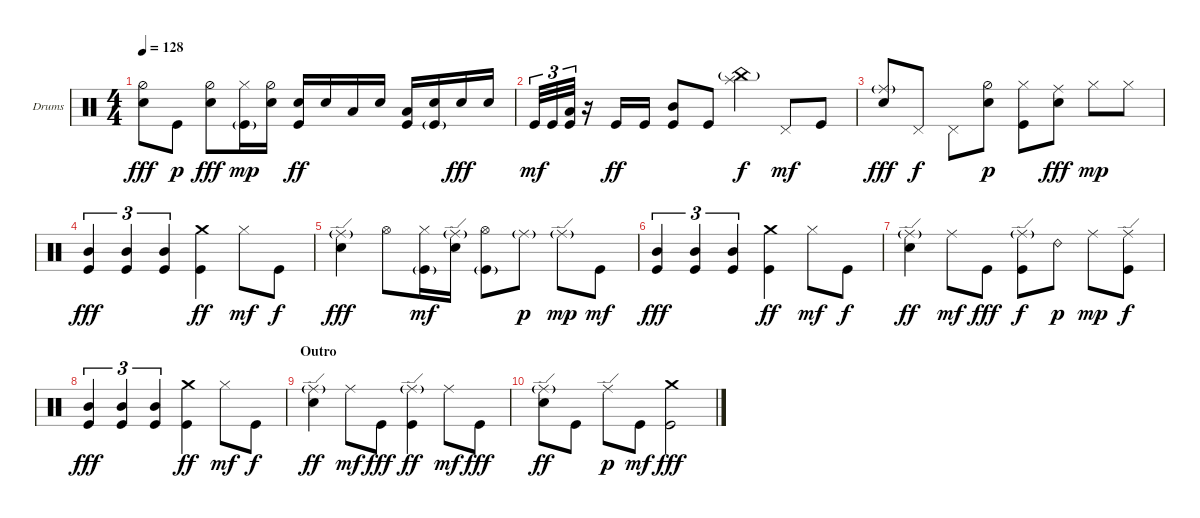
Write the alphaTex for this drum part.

\bracketExtendMode groupsimilarinstruments
\firstSystemTrackNameOrientation horizontal
\otherSystemsTrackNameOrientation horizontal
\track ("drums - john hinch" "Drums") {instrument percussion}
\staff {score}
\articulation defaults
\ts (4 4)
\tempo 128
\clef neutral
\scale
0.333333
\ks c
("Snare (hit) 2" "Hi-Hat (half)").8{dy fff} "Kick (hit)".8{dy p} ("Hi-Hat (half)" "Snare (hit) 2").8{dy fff} ("Kick (hit)"{g} "Hi-Hat (closed)").16{dy mp} ("Snare (hit) 2" "Hi-Hat (half)").16 ("Snare (hit) 2" "Kick (hit)").16{dy ff} "Snare (hit) 2".16 "Low Tom (hit)".16 "Snare (hit) 2".16 ("Low Tom (hit)" "Kick (hit)").16 ("Snare (hit) 2" "Kick (hit)"{g}).16 "Snare (hit) 2".16{dy fff} "Snare (hit) 2".16 |
\scale
0.333333 "Kick (hit)".32{tu (3 2) dy mf} "Kick (hit)".32{tu (3 2)} ("Kick (hit)" "Low Tom (hit)").32{tu (3 2)} r.16 "Kick (hit)".16{dy ff} "Kick (hit)".16 ("Kick (hit)" "Mid Tom (hit)").8 "Kick (hit)".8 ("Splash (hit)" "China (hit)"{g}).4{dy f} "Pedal Hi-Hat (hit)".8{dy mf} "Kick (hit)".8 |
\scale
0.333333 ("Snare (hit) 2" "Ride (middle)"{g}).8{dy fff} "Pedal Hi-Hat (hit)".8{dy f} "Pedal Hi-Hat (hit)".8 ("Snare (hit) 2" "Hi-Hat (half)").8{dy p} ("Kick (hit)" "Hi-Hat (closed)").8 ("Snare (hit) 2" "Ride (middle)").8{dy fff} "Hi-Hat (closed)".8{dy mp} "Hi-Hat (closed)".8 |
\scale
0.333333 ("Kick (hit)" "Mid Tom (hit)").4{tu (3 2) dy fff} ("Kick (hit)" "Mid Tom (hit)").4{tu (3 2)} ("Kick (hit)" "Mid Tom (hit)").4{tu (3 2)} ("Crash medium (hit)" "Kick (hit)").4{dy ff} "Hi-Hat (closed)".8{dy mf} "Kick (hit)".8{dy f} |
\scale
0.333333 ("Snare (hit) 2" "Ride (edge)"{g}).4{dy fff} "Hi-Hat (open)".8 ("Kick (hit)"{g} "Hi-Hat (closed)").16{dy mf} ("Snare (hit) 2" "Ride (edge)"{g}).16 ("Kick (hit)"{g} "Hi-Hat (open)").8 "Ride (middle)"{g}.8{dy p} "Ride (edge)"{g}.8{dy mp} "Kick (hit)".8{dy mf} |
\scale
0.333333 ("Kick (hit)" "Mid Tom (hit)").4{tu (3 2) dy fff} ("Kick (hit)" "Mid Tom (hit)").4{tu (3 2)} ("Kick (hit)" "Mid Tom (hit)").4{tu (3 2)} ("Crash medium (hit)" "Kick (hit)").4{dy ff} "Hi-Hat (closed)".8{dy mf} "Kick (hit)".8{dy f} |
\scale
0.333333 ("Snare (hit) 2" "Ride (edge)"{g}).4{dy ff} "Ride (middle)".8{dy mf} "Kick (hit)".8{dy fff} ("Ride (edge)"{g} "Kick (hit)").8{dy f} "Ride (bell) 2".8{dy p} "Ride (middle)".8{dy mp} ("Ride (edge)" "Kick (hit)").8{dy f} |
\scale
0.333333 ("Kick (hit)" "Mid Tom (hit)").4{tu (3 2) dy fff} ("Kick (hit)" "Mid Tom (hit)").4{tu (3 2)} ("Kick (hit)" "Mid Tom (hit)").4{tu (3 2)} ("Crash medium (hit)" "Kick (hit)").4{dy ff} "Hi-Hat (closed)".8{dy mf} "Kick (hit)".8{dy f} |
\section ("" "Outro")
\scale
0.333333 ("Snare (hit) 2" "Ride (edge)"{g}).4{dy ff} "Ride (middle)".8{dy mf} "Kick (hit)".8{dy fff} ("Ride (edge)"{g} "Kick (hit)").4{dy ff} "Ride (middle)".8{dy mf} "Kick (hit)".8{dy fff} |
\scale
0.333333 ("Snare (hit) 2" "Ride (edge)"{g}).8{dy ff} "Kick (hit)".8 "Ride (edge)".8{dy p} "Kick (hit)".8{dy mf} ("Kick (hit)" "Crash medium (hit)").2{dy fff} |
\scale
0.333333 |
\scale
0.333333 |
\scale
0.333333 |
\scale
0.333333 |
\scale
0.333333 |
\scale
0.333333
